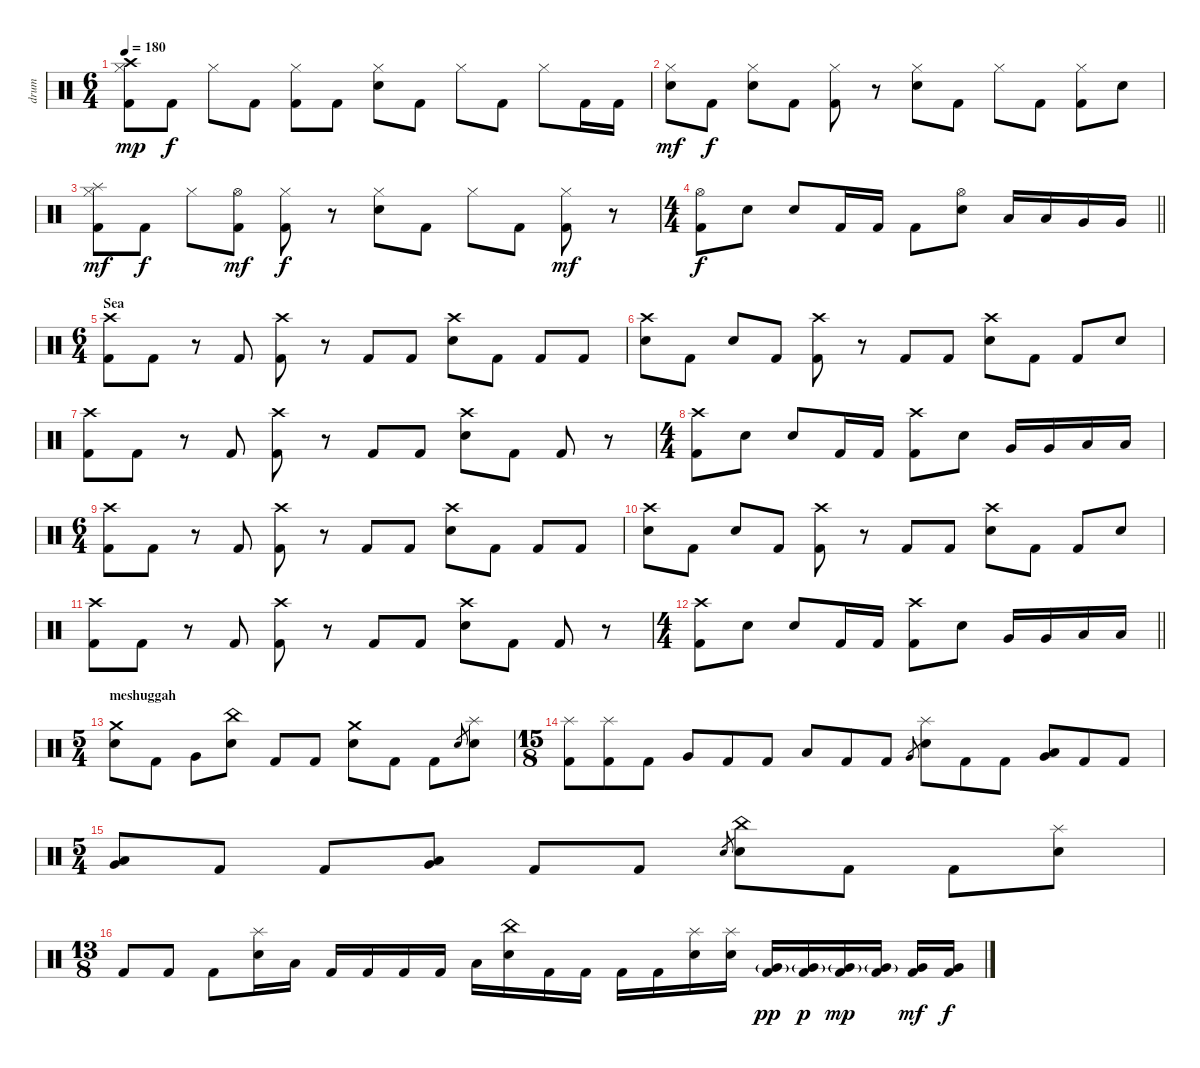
\track ("drum" "drum") {instrument percussion}
\staff {score}
\articulation defaults
\ts (6 4)
\tempo 180
\clef neutral
\ks c
("Crash high (hit)" "Hi-Hat (closed)" "Kick (hit) 2").8{dy mp} "Kick (hit) 2".8{dy f} "Hi-Hat (closed)".8 "Kick (hit) 2".8 ("Hi-Hat (closed)" "Kick (hit) 2").8 "Kick (hit) 2".8 ("Hi-Hat (closed)" "Electric Snare (hit)").8 "Kick (hit) 2".8 "Hi-Hat (closed)".8 "Kick (hit) 2".8 "Hi-Hat (closed)".8 "Kick (hit) 2".16 "Kick (hit) 2".16 |
("Hi-Hat (closed)" "Electric Snare (hit)").8{dy mf} "Kick (hit) 2".8{dy f} ("Hi-Hat (closed)" "Electric Snare (hit)").8 "Kick (hit) 2".8 ("Hi-Hat (closed)" "Kick (hit) 2").8 r.8 ("Hi-Hat (closed)" "Electric Snare (hit)").8 "Kick (hit) 2".8 "Hi-Hat (closed)".8 "Kick (hit) 2".8 ("Hi-Hat (closed)" "Kick (hit) 2").8 "Electric Snare (hit)".8 |
("Splash (hit)" "Hi-Hat (closed)" "Kick (hit) 2").8{dy mf} "Kick (hit) 2".8{dy f} "Hi-Hat (closed)".8 ("Hi-Hat (open)" "Kick (hit) 2").8{dy mf} ("Hi-Hat (closed)" "Kick (hit) 2").8{dy f} r.8 ("Hi-Hat (closed)" "Electric Snare (hit)").8 "Kick (hit) 2".8 "Hi-Hat (closed)".8 "Kick (hit) 2".8 ("Hi-Hat (closed)" "Kick (hit) 2").8{dy mf} r.8 |
\ts (4 4)
\barLineRight lightlight
("Hi-Hat (open)" "Kick (hit) 2").8{dy f} "Electric Snare (hit)".8 "Electric Snare (hit)".8 "Kick (hit) 2".16 "Kick (hit) 2".16 "Kick (hit) 2".8 ("Hi-Hat (open)" "Electric Snare (hit)").8 "Low Tom (hit)".16 "Low Tom (hit)".16 "Very Low Tom (hit)".16 "Very Low Tom (hit)".16 |
\ts (6 4)
\section ("" "Sea")
("Crash high (hit)" "Kick (hit) 2").8 "Kick (hit) 2".8 r.8 "Kick (hit) 2".8 ("Crash high (hit)" "Kick (hit) 2").8 r.8 "Kick (hit) 2".8 "Kick (hit) 2".8 ("Crash high (hit)" "Electric Snare (hit)").8 "Kick (hit) 2".8 "Kick (hit) 2".8 "Kick (hit) 2".8 |
("Crash high (hit)" "Electric Snare (hit)").8 "Kick (hit) 2".8 "Electric Snare (hit)".8 "Kick (hit) 2".8 ("Crash high (hit)" "Kick (hit) 2").8 r.8 "Kick (hit) 2".8 "Kick (hit) 2".8 ("Crash high (hit)" "Electric Snare (hit)").8 "Kick (hit) 2".8 "Kick (hit) 2".8 "Electric Snare (hit)".8 |
("Crash high (hit)" "Kick (hit) 2").8 "Kick (hit) 2".8 r.8 "Kick (hit) 2".8 ("Crash high (hit)" "Kick (hit) 2").8 r.8 "Kick (hit) 2".8 "Kick (hit) 2".8 ("Crash high (hit)" "Electric Snare (hit)").8 "Kick (hit) 2".8 "Kick (hit) 2".8 r.8 |
\ts (4 4)
("Crash high (hit)" "Kick (hit) 2").8 "Electric Snare (hit)".8 "Electric Snare (hit)".8 "Kick (hit) 2".16 "Kick (hit) 2".16 ("Crash high (hit)" "Kick (hit) 2").8 "Electric Snare (hit)".8 "Very Low Tom (hit)".16 "Very Low Tom (hit)".16 "Low Tom (hit)".16 "Low Tom (hit)".16 |
\ts (6 4)
("Crash high (hit)" "Kick (hit) 2").8 "Kick (hit) 2".8 r.8 "Kick (hit) 2".8 ("Crash high (hit)" "Kick (hit) 2").8 r.8 "Kick (hit) 2".8 "Kick (hit) 2".8 ("Crash high (hit)" "Electric Snare (hit)").8 "Kick (hit) 2".8 "Kick (hit) 2".8 "Kick (hit) 2".8 |
("Crash high (hit)" "Electric Snare (hit)").8 "Kick (hit) 2".8 "Electric Snare (hit)".8 "Kick (hit) 2".8 ("Crash high (hit)" "Kick (hit) 2").8 r.8 "Kick (hit) 2".8 "Kick (hit) 2".8 ("Crash high (hit)" "Electric Snare (hit)").8 "Kick (hit) 2".8 "Kick (hit) 2".8 "Electric Snare (hit)".8 |
("Crash high (hit)" "Kick (hit) 2").8 "Kick (hit) 2".8 r.8 "Kick (hit) 2".8 ("Crash high (hit)" "Kick (hit) 2").8 r.8 "Kick (hit) 2".8 "Kick (hit) 2".8 ("Crash high (hit)" "Electric Snare (hit)").8 "Kick (hit) 2".8 "Kick (hit) 2".8 r.8 |
\ts (4 4)
\barLineRight lightlight
("Crash high (hit)" "Kick (hit) 2").8 "Electric Snare (hit)".8 "Electric Snare (hit)".8 "Kick (hit) 2".16 "Kick (hit) 2".16 ("Crash high (hit)" "Kick (hit) 2").8 "Electric Snare (hit)".8 "Very Low Tom (hit)".16 "Very Low Tom (hit)".16 "Low Tom (hit)".16 "Low Tom (hit)".16 |
\ts (5 4)
\section ("" "meshuggah")
("Crash medium (hit)" "Electric Snare (hit)").8 "Kick (hit) 2".8 "Very Low Tom (hit)".8 ("China (hit)" "Electric Snare (hit)").8 "Kick (hit) 2".8 "Kick (hit) 2".8 ("Crash medium (hit)" "Electric Snare (hit)").8 "Kick (hit) 2".8 "Kick (hit) 2".8 "Electric Snare (hit)".8{gr} ("Splash (hit)" "Electric Snare (hit)").8 |
\ts (15 8)
("Splash (hit)" "Kick (hit) 2").8 ("Splash (hit)" "Kick (hit) 2").8 "Kick (hit) 2".8 "Very Low Tom (hit)".8 "Kick (hit) 2".8 "Kick (hit) 2".8 "Low Floor Tom (hit)".8 "Kick (hit) 2".8 "Kick (hit) 2".8 "Very Low Tom (hit)".8{gr} ("Splash (hit)" "Electric Snare (hit)").8 "Kick (hit) 2".8 "Kick (hit) 2".8 ("Low Floor Tom (hit)" "Very Low Tom (hit)").8 "Kick (hit) 2".8 "Kick (hit) 2".8 |
\ts (5 4)
("Low Tom (hit)" "Very Low Tom (hit)").8 "Kick (hit) 2".8 "Kick (hit) 2".8 ("Low Floor Tom (hit)" "Very Low Tom (hit)").8 "Kick (hit) 2".8 "Kick (hit) 2".8 "Electric Snare (hit)".8{gr} ("China (hit)" "Electric Snare (hit)").8 "Kick (hit) 2".8 "Kick (hit) 2".8 ("Splash (hit)" "Electric Snare (hit)").8 |
\ts (13 8)
"Kick (hit) 2".8 "Kick (hit) 2".8 "Kick (hit) 2".8 ("Splash (hit)" "Electric Snare (hit)").16 "Low Tom (hit)".16 "Kick (hit) 2".16 "Kick (hit) 2".16 "Kick (hit) 2".16 "Kick (hit) 2".16 "Low Tom (hit)".16 ("China (hit)" "Electric Snare (hit)").16 "Kick (hit) 2".16 "Kick (hit) 2".16 "Kick (hit) 2".16 "Kick (hit) 2".16 ("Splash (hit)" "Electric Snare (hit)").16 ("Splash (hit)" "Electric Snare (hit)").16 ("Very Low Tom (hit)"{g} "Kick (hit) 2").16{dy pp} ("Very Low Tom (hit)"{g} "Kick (hit) 2").16{dy p} ("Very Low Tom (hit)"{g} "Kick (hit) 2").16{dy mp} ("Very Low Tom (hit)"{g} "Kick (hit) 2").16 ("Very Low Tom (hit)" "Kick (hit) 2").16{dy mf} ("Very Low Tom (hit)" "Kick (hit) 2").16{dy f}
